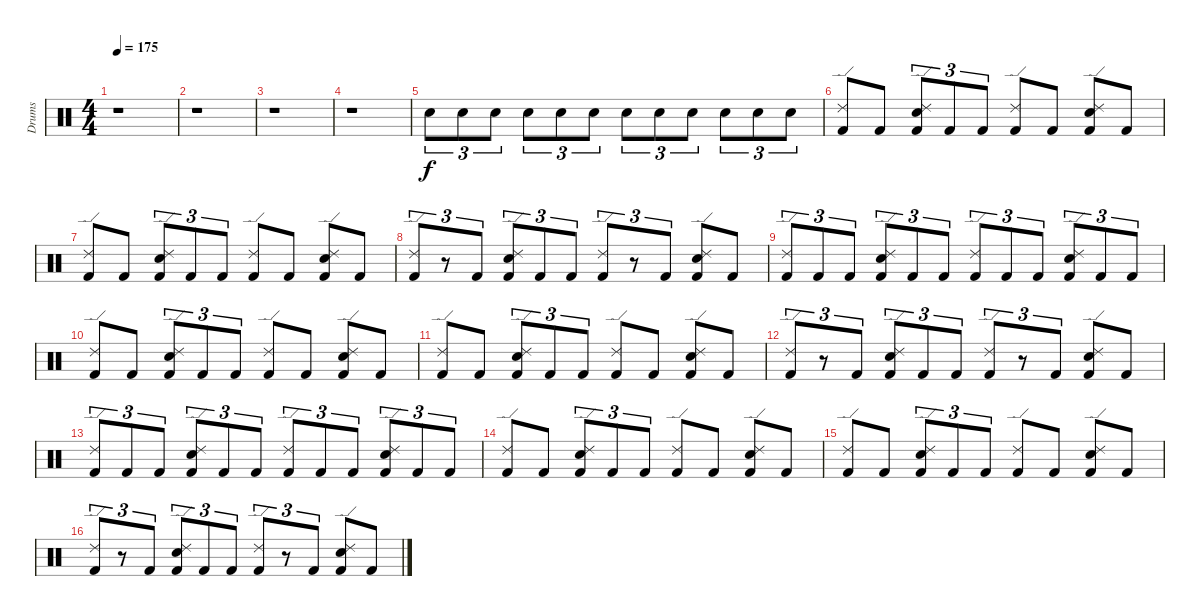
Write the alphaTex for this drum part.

\track ("Drums" "Drums") {instrument percussion}
\staff {score}
\articulation defaults
\ts (4 4)
\tempo 175
\clef neutral
\ks c
r.1{dy f} |
r.1 |
r.1 |
r.1 |
"Electric Snare (hit)".8{tu (3 2)} "Electric Snare (hit)".8{tu (3 2)} "Electric Snare (hit)".8{tu (3 2)} "Electric Snare (hit)".8{tu (3 2)} "Electric Snare (hit)".8{tu (3 2)} "Electric Snare (hit)".8{tu (3 2)} "Electric Snare (hit)".8{tu (3 2)} "Electric Snare (hit)".8{tu (3 2)} "Electric Snare (hit)".8{tu (3 2)} "Electric Snare (hit)".8{tu (3 2)} "Electric Snare (hit)".8{tu (3 2)} "Electric Snare (hit)".8{tu (3 2)} |
("Ride (edge) 2" "Kick (hit) 2").8 "Kick (hit) 2".8 ("Ride (edge) 2" "Electric Snare (hit)" "Kick (hit) 2").8{tu (3 2)} "Kick (hit) 2".8{tu (3 2)} "Kick (hit) 2".8{tu (3 2)} ("Ride (edge) 2" "Kick (hit) 2").8 "Kick (hit) 2".8 ("Electric Snare (hit)" "Kick (hit) 2" "Ride (edge) 2").8 "Kick (hit) 2".8 |
("Ride (edge) 2" "Kick (hit) 2").8 "Kick (hit) 2".8 ("Ride (edge) 2" "Electric Snare (hit)" "Kick (hit) 2").8{tu (3 2)} "Kick (hit) 2".8{tu (3 2)} "Kick (hit) 2".8{tu (3 2)} ("Ride (edge) 2" "Kick (hit) 2").8 "Kick (hit) 2".8 ("Electric Snare (hit)" "Kick (hit) 2" "Ride (edge) 2").8 "Kick (hit) 2".8 |
("Ride (edge) 2" "Kick (hit) 2").8{tu (3 2)} r.8{tu (3 2)} "Kick (hit) 2".8{tu (3 2)} ("Ride (edge) 2" "Electric Snare (hit)" "Kick (hit) 2").8{tu (3 2)} "Kick (hit) 2".8{tu (3 2)} "Kick (hit) 2".8{tu (3 2)} ("Ride (edge) 2" "Kick (hit) 2").8{tu (3 2)} r.8{tu (3 2)} "Kick (hit) 2".8{tu (3 2)} ("Electric Snare (hit)" "Kick (hit) 2" "Ride (edge) 2").8 "Kick (hit) 2".8 |
("Ride (edge) 2" "Kick (hit) 2").8{tu (3 2)} "Kick (hit) 2".8{tu (3 2)} "Kick (hit) 2".8{tu (3 2)} ("Ride (edge) 2" "Electric Snare (hit)" "Kick (hit) 2").8{tu (3 2)} "Kick (hit) 2".8{tu (3 2)} "Kick (hit) 2".8{tu (3 2)} ("Ride (edge) 2" "Kick (hit) 2").8{tu (3 2)} "Kick (hit) 2".8{tu (3 2)} "Kick (hit) 2".8{tu (3 2)} ("Ride (edge) 2" "Electric Snare (hit)" "Kick (hit) 2").8{tu (3 2)} "Kick (hit) 2".8{tu (3 2)} "Kick (hit) 2".8{tu (3 2)} |
("Ride (edge) 2" "Kick (hit) 2").8 "Kick (hit) 2".8 ("Ride (edge) 2" "Electric Snare (hit)" "Kick (hit) 2").8{tu (3 2)} "Kick (hit) 2".8{tu (3 2)} "Kick (hit) 2".8{tu (3 2)} ("Ride (edge) 2" "Kick (hit) 2").8 "Kick (hit) 2".8 ("Electric Snare (hit)" "Kick (hit) 2" "Ride (edge) 2").8 "Kick (hit) 2".8 |
("Ride (edge) 2" "Kick (hit) 2").8 "Kick (hit) 2".8 ("Ride (edge) 2" "Electric Snare (hit)" "Kick (hit) 2").8{tu (3 2)} "Kick (hit) 2".8{tu (3 2)} "Kick (hit) 2".8{tu (3 2)} ("Ride (edge) 2" "Kick (hit) 2").8 "Kick (hit) 2".8 ("Electric Snare (hit)" "Kick (hit) 2" "Ride (edge) 2").8 "Kick (hit) 2".8 |
("Ride (edge) 2" "Kick (hit) 2").8{tu (3 2)} r.8{tu (3 2)} "Kick (hit) 2".8{tu (3 2)} ("Ride (edge) 2" "Electric Snare (hit)" "Kick (hit) 2").8{tu (3 2)} "Kick (hit) 2".8{tu (3 2)} "Kick (hit) 2".8{tu (3 2)} ("Ride (edge) 2" "Kick (hit) 2").8{tu (3 2)} r.8{tu (3 2)} "Kick (hit) 2".8{tu (3 2)} ("Electric Snare (hit)" "Kick (hit) 2" "Ride (edge) 2").8 "Kick (hit) 2".8 |
("Ride (edge) 2" "Kick (hit) 2").8{tu (3 2)} "Kick (hit) 2".8{tu (3 2)} "Kick (hit) 2".8{tu (3 2)} ("Ride (edge) 2" "Electric Snare (hit)" "Kick (hit) 2").8{tu (3 2)} "Kick (hit) 2".8{tu (3 2)} "Kick (hit) 2".8{tu (3 2)} ("Ride (edge) 2" "Kick (hit) 2").8{tu (3 2)} "Kick (hit) 2".8{tu (3 2)} "Kick (hit) 2".8{tu (3 2)} ("Ride (edge) 2" "Electric Snare (hit)" "Kick (hit) 2").8{tu (3 2)} "Kick (hit) 2".8{tu (3 2)} "Kick (hit) 2".8{tu (3 2)} |
("Ride (edge) 2" "Kick (hit) 2").8 "Kick (hit) 2".8 ("Ride (edge) 2" "Electric Snare (hit)" "Kick (hit) 2").8{tu (3 2)} "Kick (hit) 2".8{tu (3 2)} "Kick (hit) 2".8{tu (3 2)} ("Ride (edge) 2" "Kick (hit) 2").8 "Kick (hit) 2".8 ("Electric Snare (hit)" "Kick (hit) 2" "Ride (edge) 2").8 "Kick (hit) 2".8 |
("Ride (edge) 2" "Kick (hit) 2").8 "Kick (hit) 2".8 ("Ride (edge) 2" "Electric Snare (hit)" "Kick (hit) 2").8{tu (3 2)} "Kick (hit) 2".8{tu (3 2)} "Kick (hit) 2".8{tu (3 2)} ("Ride (edge) 2" "Kick (hit) 2").8 "Kick (hit) 2".8 ("Electric Snare (hit)" "Kick (hit) 2" "Ride (edge) 2").8 "Kick (hit) 2".8 |
("Ride (edge) 2" "Kick (hit) 2").8{tu (3 2)} r.8{tu (3 2)} "Kick (hit) 2".8{tu (3 2)} ("Ride (edge) 2" "Electric Snare (hit)" "Kick (hit) 2").8{tu (3 2)} "Kick (hit) 2".8{tu (3 2)} "Kick (hit) 2".8{tu (3 2)} ("Ride (edge) 2" "Kick (hit) 2").8{tu (3 2)} r.8{tu (3 2)} "Kick (hit) 2".8{tu (3 2)} ("Electric Snare (hit)" "Kick (hit) 2" "Ride (edge) 2").8 "Kick (hit) 2".8
